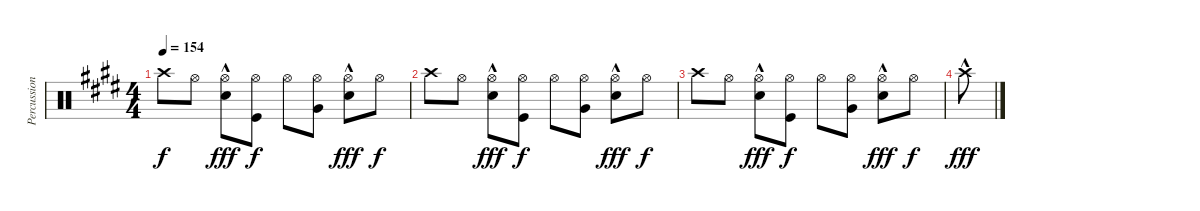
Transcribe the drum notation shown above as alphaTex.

\track ("Percussion (Derek Grant)" "Percussion") {instrument percussion}
\staff {score}
\articulation defaults
\ts (4 4)
\tempo 154
\clef neutral
\ks c#minor "Crash high (hit)".8{dy f} "Hi-Hat (open)".8
("Hi-Hat (open)" "Snare (hit) 2"{hac}).8{dy fff} ("Hi-Hat (open)" "Kick (hit)").8{dy f} "Hi-Hat (open)".8 ("Hi-Hat (open)" "Very Low Tom (hit)").8 ("Hi-Hat (open)" "Snare (hit) 2"{hac}).8{dy fff} "Hi-Hat (open)".8{dy f} |
"Crash high (hit)".8 "Hi-Hat (open)".8 ("Hi-Hat (open)" "Snare (hit) 2"{hac}).8{dy fff} ("Hi-Hat (open)" "Kick (hit)").8{dy f} "Hi-Hat (open)".8 ("Hi-Hat (open)" "Very Low Tom (hit)").8 ("Hi-Hat (open)" "Snare (hit) 2"{hac}).8{dy fff} "Hi-Hat (open)".8{dy f} |
"Crash high (hit)".8 "Hi-Hat (open)".8 ("Hi-Hat (open)" "Snare (hit) 2"{hac}).8{dy fff} ("Hi-Hat (open)" "Kick (hit)").8{dy f} "Hi-Hat (open)".8 ("Hi-Hat (open)" "Very Low Tom (hit)").8 ("Hi-Hat (open)" "Snare (hit) 2"{hac}).8{dy fff} "Hi-Hat (open)".8{dy f} |
"Crash high (hit)"{hac}.8{dy fff}
